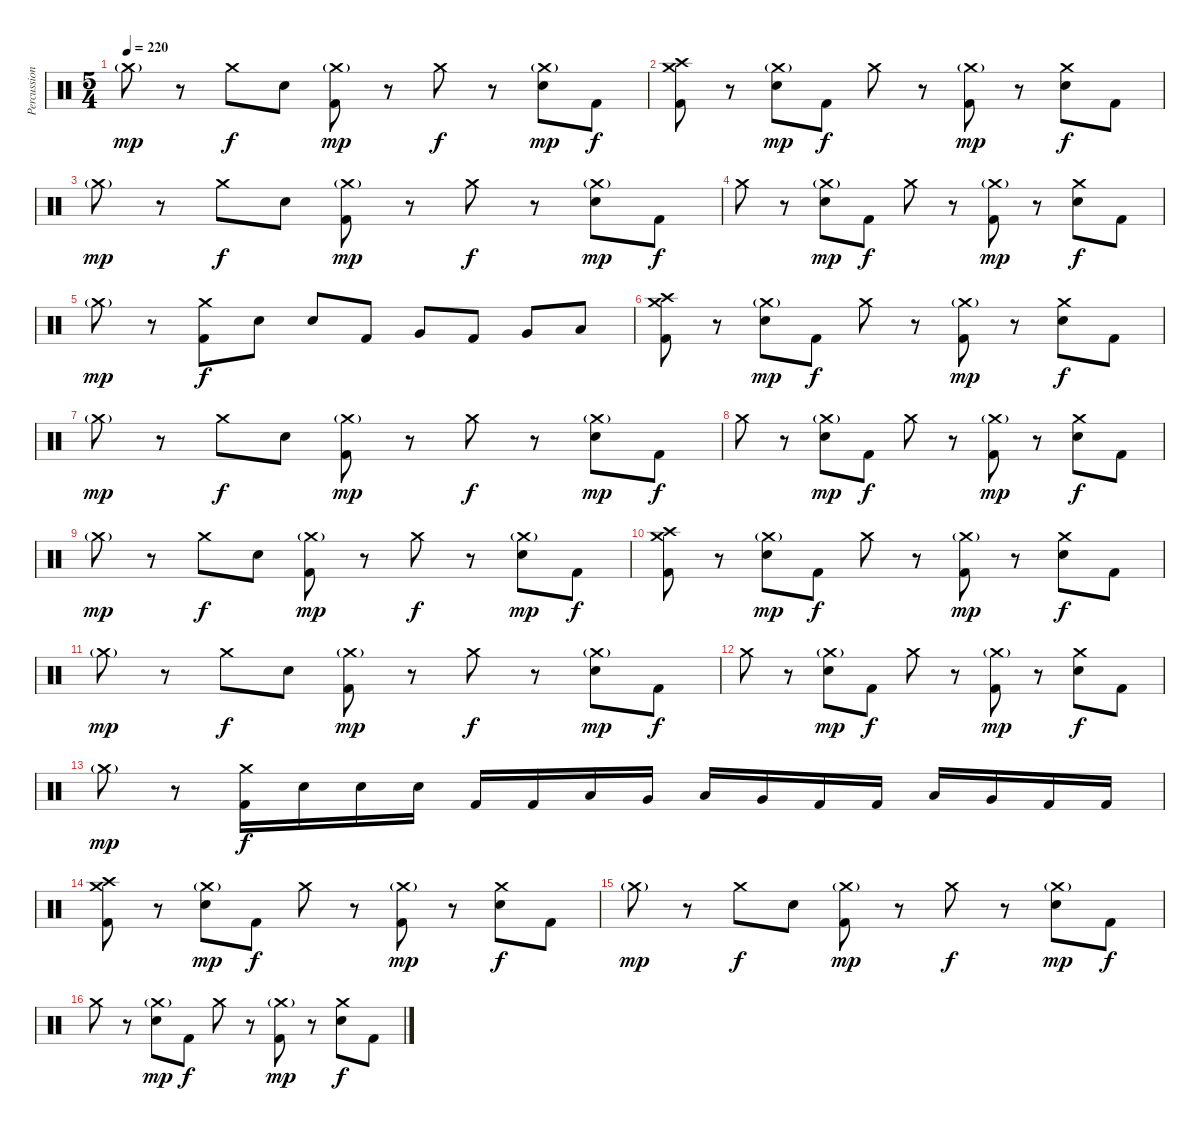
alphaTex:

\track ("Percussion" "Percussion") {instrument percussion}
\staff {score}
\articulation defaults
\ts (5 4)
\tempo 220
\clef neutral
\ks c "Crash medium (hit)"{g}.8{dy mp}
r.8 "Crash medium (hit)".8{dy f} "Electric Snare (hit)".8 ("Crash medium (hit)"{g} "Kick (hit) 2").8{dy mp} r.8 "Crash medium (hit)".8{dy f} r.8 ("Crash medium (hit)"{g} "Electric Snare (hit)").8{dy mp} "Kick (hit) 2".8{dy f} |
("Crash medium (hit)" "Crash high (hit)" "Kick (hit) 2").8 r.8 ("Crash medium (hit)"{g} "Electric Snare (hit)").8{dy mp} "Kick (hit) 2".8{dy f} "Crash medium (hit)".8 r.8 ("Crash medium (hit)"{g} "Kick (hit) 2").8{dy mp} r.8 ("Crash medium (hit)" "Electric Snare (hit)").8{dy f} "Kick (hit) 2".8 |
"Crash medium (hit)"{g}.8{dy mp} r.8 "Crash medium (hit)".8{dy f} "Electric Snare (hit)".8 ("Crash medium (hit)"{g} "Kick (hit) 2").8{dy mp} r.8 "Crash medium (hit)".8{dy f} r.8 ("Crash medium (hit)"{g} "Electric Snare (hit)").8{dy mp} "Kick (hit) 2".8{dy f} |
"Crash medium (hit)".8 r.8 ("Crash medium (hit)"{g} "Electric Snare (hit)").8{dy mp} "Kick (hit) 2".8{dy f} "Crash medium (hit)".8 r.8 ("Crash medium (hit)"{g} "Kick (hit) 2").8{dy mp} r.8 ("Crash medium (hit)" "Electric Snare (hit)").8{dy f} "Kick (hit) 2".8 |
"Crash medium (hit)"{g}.8{dy mp} r.8 ("Crash medium (hit)" "Kick (hit) 2").8{dy f} "Electric Snare (hit)".8 "Electric Snare (hit)".8 "Kick (hit) 2".8 "Very Low Tom (hit)".8 "Kick (hit) 2".8 "Very Low Tom (hit)".8 "Low Floor Tom (hit)".8 |
("Crash medium (hit)" "Crash high (hit)" "Kick (hit) 2").8 r.8 ("Crash medium (hit)"{g} "Electric Snare (hit)").8{dy mp} "Kick (hit) 2".8{dy f} "Crash medium (hit)".8 r.8 ("Crash medium (hit)"{g} "Kick (hit) 2").8{dy mp} r.8 ("Crash medium (hit)" "Electric Snare (hit)").8{dy f} "Kick (hit) 2".8 |
"Crash medium (hit)"{g}.8{dy mp} r.8 "Crash medium (hit)".8{dy f} "Electric Snare (hit)".8 ("Crash medium (hit)"{g} "Kick (hit) 2").8{dy mp} r.8 "Crash medium (hit)".8{dy f} r.8 ("Crash medium (hit)"{g} "Electric Snare (hit)").8{dy mp} "Kick (hit) 2".8{dy f} |
"Crash medium (hit)".8 r.8 ("Crash medium (hit)"{g} "Electric Snare (hit)").8{dy mp} "Kick (hit) 2".8{dy f} "Crash medium (hit)".8 r.8 ("Crash medium (hit)"{g} "Kick (hit) 2").8{dy mp} r.8 ("Crash medium (hit)" "Electric Snare (hit)").8{dy f} "Kick (hit) 2".8 |
"Crash medium (hit)"{g}.8{dy mp} r.8 "Crash medium (hit)".8{dy f} "Electric Snare (hit)".8 ("Crash medium (hit)"{g} "Kick (hit) 2").8{dy mp} r.8 "Crash medium (hit)".8{dy f} r.8 ("Crash medium (hit)"{g} "Electric Snare (hit)").8{dy mp} "Kick (hit) 2".8{dy f} |
("Crash medium (hit)" "Crash high (hit)" "Kick (hit) 2").8 r.8 ("Crash medium (hit)"{g} "Electric Snare (hit)").8{dy mp} "Kick (hit) 2".8{dy f} "Crash medium (hit)".8 r.8 ("Crash medium (hit)"{g} "Kick (hit) 2").8{dy mp} r.8 ("Crash medium (hit)" "Electric Snare (hit)").8{dy f} "Kick (hit) 2".8 |
"Crash medium (hit)"{g}.8{dy mp} r.8 "Crash medium (hit)".8{dy f} "Electric Snare (hit)".8 ("Crash medium (hit)"{g} "Kick (hit) 2").8{dy mp} r.8 "Crash medium (hit)".8{dy f} r.8 ("Crash medium (hit)"{g} "Electric Snare (hit)").8{dy mp} "Kick (hit) 2".8{dy f} |
"Crash medium (hit)".8 r.8 ("Crash medium (hit)"{g} "Electric Snare (hit)").8{dy mp} "Kick (hit) 2".8{dy f} "Crash medium (hit)".8 r.8 ("Crash medium (hit)"{g} "Kick (hit) 2").8{dy mp} r.8 ("Crash medium (hit)" "Electric Snare (hit)").8{dy f} "Kick (hit) 2".8 |
"Crash medium (hit)"{g}.8{dy mp} r.8 ("Crash medium (hit)" "Kick (hit) 2").16{dy f} "Electric Snare (hit)".16 "Electric Snare (hit)".16 "Electric Snare (hit)".16 "Kick (hit) 2".16 "Kick (hit) 2".16 "Low Floor Tom (hit)".16 "Very Low Tom (hit)".16 "Low Floor Tom (hit)".16 "Very Low Tom (hit)".16 "Kick (hit) 2".16 "Kick (hit) 2".16 "Low Floor Tom (hit)".16 "Very Low Tom (hit)".16 "Kick (hit) 2".16 "Kick (hit) 2".16 |
("Crash medium (hit)" "Crash high (hit)" "Kick (hit) 2").8 r.8 ("Crash medium (hit)"{g} "Electric Snare (hit)").8{dy mp} "Kick (hit) 2".8{dy f} "Crash medium (hit)".8 r.8 ("Crash medium (hit)"{g} "Kick (hit) 2").8{dy mp} r.8 ("Crash medium (hit)" "Electric Snare (hit)").8{dy f} "Kick (hit) 2".8 |
"Crash medium (hit)"{g}.8{dy mp} r.8 "Crash medium (hit)".8{dy f} "Electric Snare (hit)".8 ("Crash medium (hit)"{g} "Kick (hit) 2").8{dy mp} r.8 "Crash medium (hit)".8{dy f} r.8 ("Crash medium (hit)"{g} "Electric Snare (hit)").8{dy mp} "Kick (hit) 2".8{dy f} |
"Crash medium (hit)".8 r.8 ("Crash medium (hit)"{g} "Electric Snare (hit)").8{dy mp} "Kick (hit) 2".8{dy f} "Crash medium (hit)".8 r.8 ("Crash medium (hit)"{g} "Kick (hit) 2").8{dy mp} r.8 ("Crash medium (hit)" "Electric Snare (hit)").8{dy f} "Kick (hit) 2".8
